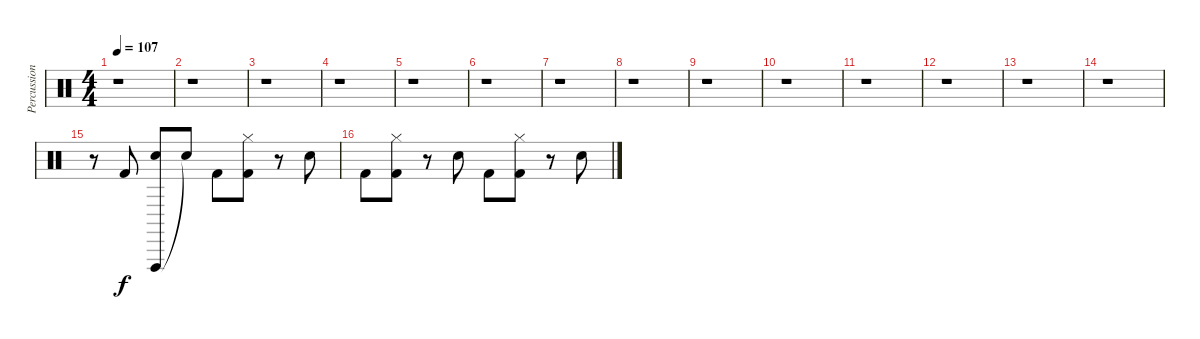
\track ("Percussion" "Percussion") {instrument percussion}
\staff {score}
\articulation defaults
\ts (4 4)
\tempo 107
\clef neutral
\ks c
r.1{dy f} |
r.1 |
r.1 |
r.1 |
r.1 |
r.1 |
r.1 |
r.1 |
r.1 |
r.1 |
r.1 |
r.1 |
r.1 |
r.1 |
r.8 "Kick (hit) 2".8 ("Vibraslap (hit)" "Electric Snare (hit)").8 "Snare (hit)"{t}.8 "Kick (hit) 2".8 ("Hi-Hat (closed)" "Kick (hit) 2").8 r.8 "Electric Snare (hit)".8 |
"Kick (hit) 2".8 ("Hi-Hat (closed)" "Kick (hit) 2").8 r.8 "Electric Snare (hit)".8 "Kick (hit) 2".8 ("Hi-Hat (closed)" "Kick (hit) 2").8 r.8 "Electric Snare (hit)".8
